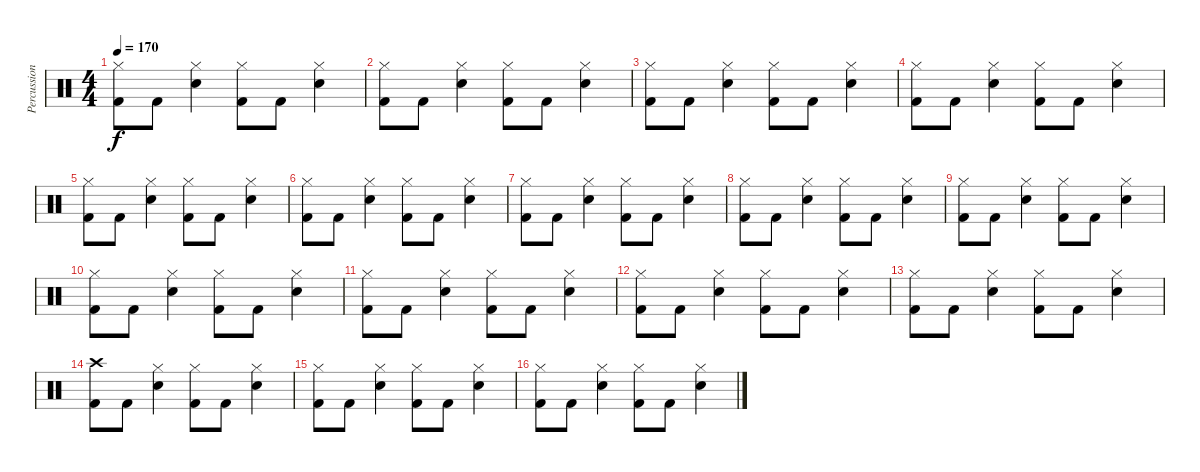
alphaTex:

\track ("Percussion" "Percussion") {instrument percussion}
\staff {score}
\articulation defaults
\ts (4 4)
\tempo 170
\clef neutral
\ks c
("Hi-Hat (closed)" "Kick (hit) 2").8{dy f} "Kick (hit) 2".8 ("Hi-Hat (closed)" "Electric Snare (hit)").4 ("Hi-Hat (closed)" "Kick (hit) 2").8 "Kick (hit) 2".8 ("Hi-Hat (closed)" "Electric Snare (hit)").4 |
("Hi-Hat (closed)" "Kick (hit) 2").8 "Kick (hit) 2".8 ("Hi-Hat (closed)" "Electric Snare (hit)").4 ("Hi-Hat (closed)" "Kick (hit) 2").8 "Kick (hit) 2".8 ("Hi-Hat (closed)" "Electric Snare (hit)").4 |
("Hi-Hat (closed)" "Kick (hit) 2").8 "Kick (hit) 2".8 ("Hi-Hat (closed)" "Electric Snare (hit)").4 ("Hi-Hat (closed)" "Kick (hit) 2").8 "Kick (hit) 2".8 ("Hi-Hat (closed)" "Electric Snare (hit)").4 |
("Hi-Hat (closed)" "Kick (hit) 2").8 "Kick (hit) 2".8 ("Hi-Hat (closed)" "Electric Snare (hit)").4 ("Hi-Hat (closed)" "Kick (hit) 2").8 "Kick (hit) 2".8 ("Hi-Hat (closed)" "Electric Snare (hit)").4 |
("Hi-Hat (closed)" "Kick (hit) 2").8 "Kick (hit) 2".8 ("Hi-Hat (closed)" "Electric Snare (hit)").4 ("Hi-Hat (closed)" "Kick (hit) 2").8 "Kick (hit) 2".8 ("Hi-Hat (closed)" "Electric Snare (hit)").4 |
("Hi-Hat (closed)" "Kick (hit) 2").8 "Kick (hit) 2".8 ("Hi-Hat (closed)" "Electric Snare (hit)").4 ("Hi-Hat (closed)" "Kick (hit) 2").8 "Kick (hit) 2".8 ("Hi-Hat (closed)" "Electric Snare (hit)").4 |
("Hi-Hat (closed)" "Kick (hit) 2").8 "Kick (hit) 2".8 ("Hi-Hat (closed)" "Electric Snare (hit)").4 ("Hi-Hat (closed)" "Kick (hit) 2").8 "Kick (hit) 2".8 ("Hi-Hat (closed)" "Electric Snare (hit)").4 |
("Hi-Hat (closed)" "Kick (hit) 2").8 "Kick (hit) 2".8 ("Hi-Hat (closed)" "Electric Snare (hit)").4 ("Hi-Hat (closed)" "Kick (hit) 2").8 "Kick (hit) 2".8 ("Hi-Hat (closed)" "Electric Snare (hit)").4 |
("Hi-Hat (closed)" "Kick (hit) 2").8 "Kick (hit) 2".8 ("Hi-Hat (closed)" "Electric Snare (hit)").4 ("Hi-Hat (closed)" "Kick (hit) 2").8 "Kick (hit) 2".8 ("Hi-Hat (closed)" "Electric Snare (hit)").4 |
("Hi-Hat (closed)" "Kick (hit) 2").8 "Kick (hit) 2".8 ("Hi-Hat (closed)" "Electric Snare (hit)").4 ("Hi-Hat (closed)" "Kick (hit) 2").8 "Kick (hit) 2".8 ("Hi-Hat (closed)" "Electric Snare (hit)").4 |
("Hi-Hat (closed)" "Kick (hit) 2").8 "Kick (hit) 2".8 ("Hi-Hat (closed)" "Electric Snare (hit)").4 ("Hi-Hat (closed)" "Kick (hit) 2").8 "Kick (hit) 2".8 ("Hi-Hat (closed)" "Electric Snare (hit)").4 |
("Hi-Hat (closed)" "Kick (hit) 2").8 "Kick (hit) 2".8 ("Hi-Hat (closed)" "Electric Snare (hit)").4 ("Hi-Hat (closed)" "Kick (hit) 2").8 "Kick (hit) 2".8 ("Hi-Hat (closed)" "Electric Snare (hit)").4 |
("Hi-Hat (closed)" "Kick (hit) 2").8 "Kick (hit) 2".8 ("Hi-Hat (closed)" "Electric Snare (hit)").4 ("Hi-Hat (closed)" "Kick (hit) 2").8 "Kick (hit) 2".8 ("Hi-Hat (closed)" "Electric Snare (hit)").4 |
("Crash high (hit)" "Kick (hit) 2").8 "Kick (hit) 2".8 ("Hi-Hat (closed)" "Electric Snare (hit)").4 ("Hi-Hat (closed)" "Kick (hit) 2").8 "Kick (hit) 2".8 ("Hi-Hat (closed)" "Electric Snare (hit)").4 |
("Hi-Hat (closed)" "Kick (hit) 2").8 "Kick (hit) 2".8 ("Hi-Hat (closed)" "Electric Snare (hit)").4 ("Hi-Hat (closed)" "Kick (hit) 2").8 "Kick (hit) 2".8 ("Hi-Hat (closed)" "Electric Snare (hit)").4 |
("Hi-Hat (closed)" "Kick (hit) 2").8 "Kick (hit) 2".8 ("Hi-Hat (closed)" "Electric Snare (hit)").4 ("Hi-Hat (closed)" "Kick (hit) 2").8 "Kick (hit) 2".8 ("Hi-Hat (closed)" "Electric Snare (hit)").4
